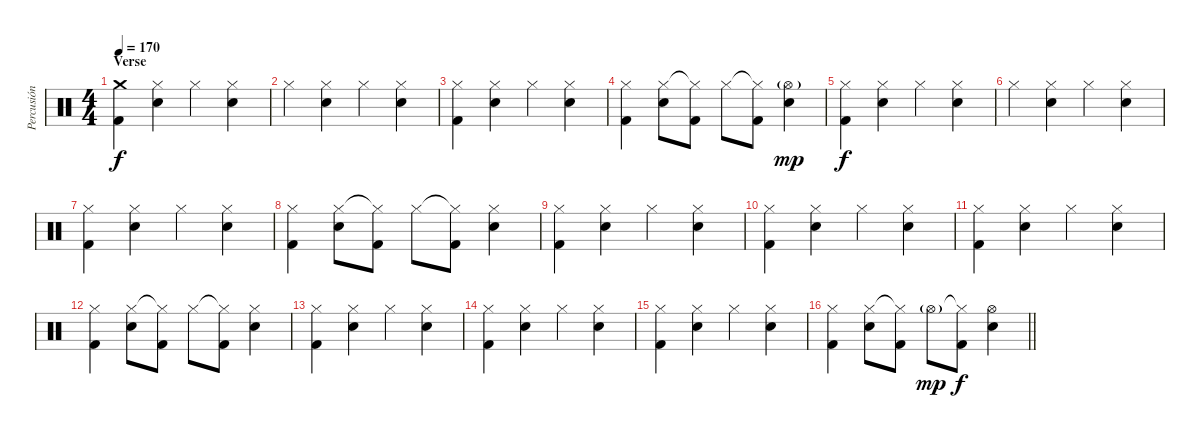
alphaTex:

\track ("Percusión" "Percusión") {instrument percussion}
\staff {score}
\articulation defaults
\ts (4 4)
\section ("" "Verse")
\tempo 170
\clef neutral
\ks c
("Crash medium (hit)" "Kick (hit) 2").4{dy f} ("Hi-Hat (closed)" "Electric Snare (hit)").4 "Hi-Hat (closed)".4 ("Hi-Hat (closed)" "Electric Snare (hit)").4 |
"Hi-Hat (closed)".4 ("Hi-Hat (closed)" "Electric Snare (hit)").4 "Hi-Hat (closed)".4 ("Hi-Hat (closed)" "Electric Snare (hit)").4 |
("Hi-Hat (closed)" "Kick (hit) 2").4 ("Hi-Hat (closed)" "Electric Snare (hit)").4 "Hi-Hat (closed)".4 ("Hi-Hat (closed)" "Electric Snare (hit)").4 |
("Hi-Hat (closed)" "Kick (hit) 2").4 ("Hi-Hat (closed)" "Electric Snare (hit)").8 ("Hi-Hat (closed)"{t} "Kick (hit) 2").8 "Hi-Hat (closed)".8 ("Hi-Hat (closed)"{t} "Kick (hit) 2").8 ("Hi-Hat (open)"{g} "Electric Snare (hit)").4{dy mp} |
("Hi-Hat (closed)" "Kick (hit) 2").4{dy f} ("Hi-Hat (closed)" "Electric Snare (hit)").4 "Hi-Hat (closed)".4 ("Hi-Hat (closed)" "Electric Snare (hit)").4 |
"Hi-Hat (closed)".4 ("Hi-Hat (closed)" "Electric Snare (hit)").4 "Hi-Hat (closed)".4 ("Hi-Hat (closed)" "Electric Snare (hit)").4 |
("Hi-Hat (closed)" "Kick (hit) 2").4 ("Hi-Hat (closed)" "Electric Snare (hit)").4 "Hi-Hat (closed)".4 ("Hi-Hat (closed)" "Electric Snare (hit)").4 |
("Hi-Hat (closed)" "Kick (hit) 2").4 ("Hi-Hat (closed)" "Electric Snare (hit)").8 ("Hi-Hat (closed)"{t} "Kick (hit) 2").8 "Hi-Hat (closed)".8 ("Hi-Hat (closed)"{t} "Kick (hit) 2").8 ("Hi-Hat (closed)" "Electric Snare (hit)").4 |
("Hi-Hat (closed)" "Kick (hit) 2").4 ("Hi-Hat (closed)" "Electric Snare (hit)").4 "Hi-Hat (closed)".4 ("Hi-Hat (closed)" "Electric Snare (hit)").4 |
("Hi-Hat (closed)" "Kick (hit) 2").4 ("Hi-Hat (closed)" "Electric Snare (hit)").4 "Hi-Hat (closed)".4 ("Hi-Hat (closed)" "Electric Snare (hit)").4 |
("Hi-Hat (closed)" "Kick (hit) 2").4 ("Hi-Hat (closed)" "Electric Snare (hit)").4 "Hi-Hat (closed)".4 ("Hi-Hat (closed)" "Electric Snare (hit)").4 |
("Hi-Hat (closed)" "Kick (hit) 2").4 ("Hi-Hat (closed)" "Electric Snare (hit)").8 ("Hi-Hat (closed)"{t} "Kick (hit) 2").8 "Hi-Hat (closed)".8 ("Hi-Hat (closed)"{t} "Kick (hit) 2").8 ("Hi-Hat (closed)" "Electric Snare (hit)").4 |
("Hi-Hat (closed)" "Kick (hit) 2").4 ("Hi-Hat (closed)" "Electric Snare (hit)").4 "Hi-Hat (closed)".4 ("Hi-Hat (closed)" "Electric Snare (hit)").4 |
("Hi-Hat (closed)" "Kick (hit) 2").4 ("Hi-Hat (closed)" "Electric Snare (hit)").4 "Hi-Hat (closed)".4 ("Hi-Hat (closed)" "Electric Snare (hit)").4 |
("Hi-Hat (closed)" "Kick (hit) 2").4 ("Hi-Hat (closed)" "Electric Snare (hit)").4 "Hi-Hat (closed)".4 ("Hi-Hat (closed)" "Electric Snare (hit)").4 |
\barLineRight lightlight
("Hi-Hat (closed)" "Kick (hit) 2").4 ("Hi-Hat (closed)" "Electric Snare (hit)").8 ("Hi-Hat (closed)"{t} "Kick (hit) 2").8 "Hi-Hat (open)"{g}.8{dy mp} ("Hi-Hat (closed)"{t} "Kick (hit) 2").8{dy f} ("Hi-Hat (open)" "Electric Snare (hit)").4
